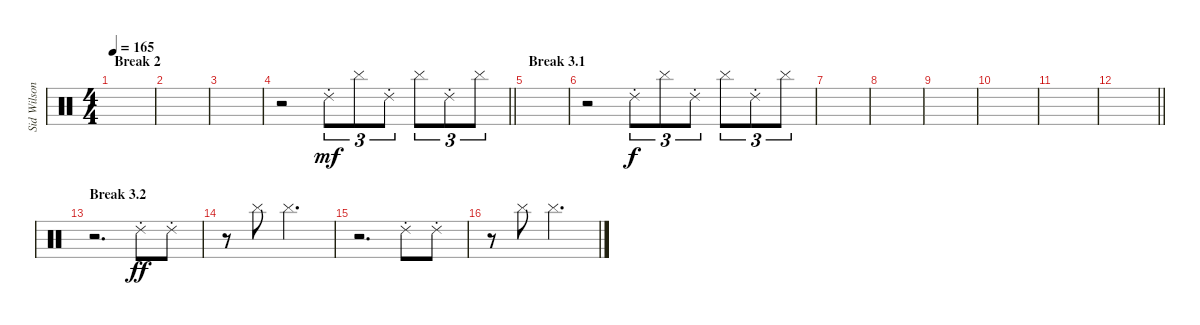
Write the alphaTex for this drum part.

\track ("Sid Wilson" "Sid Wilson") {instrument percussion}
\staff {score}
\articulation defaults
\ts (4 4)
\section ("" "Break 2")
\tempo 165
\clef neutral
\ks c
|
|
|
\barLineRight lightlight
r.2 "Ride (choke) 2".8{tu (3 2) dy mf} "Cymbal (hit)".8{tu (3 2)} "Ride (choke) 2".8{tu (3 2)} "Cymbal (hit)".8{tu (3 2)} "Ride (choke) 2".8{tu (3 2)} "Cymbal (hit)".8{tu (3 2)} |
\section ("" "Break 3.1")
|
r.2 "Ride (choke) 2".8{tu (3 2) dy f} "Cymbal (hit)".8{tu (3 2)} "Ride (choke) 2".8{tu (3 2)} "Cymbal (hit)".8{tu (3 2)} "Ride (choke) 2".8{tu (3 2)} "Cymbal (hit)".8{tu (3 2)} |
|
|
|
|
|
\barLineRight lightlight
|
\section ("" "Break 3.2")
r.2{d} "Ride (choke) 2".8{dy ff} "Ride (choke) 2".8 |
r.8 "Cymbal (hit)".8 "Cymbal (hit)".2{d} |
r.2{d} "Ride (choke) 2".8 "Ride (choke) 2".8 |
r.8 "Cymbal (hit)".8 "Cymbal (hit)".2{d}
